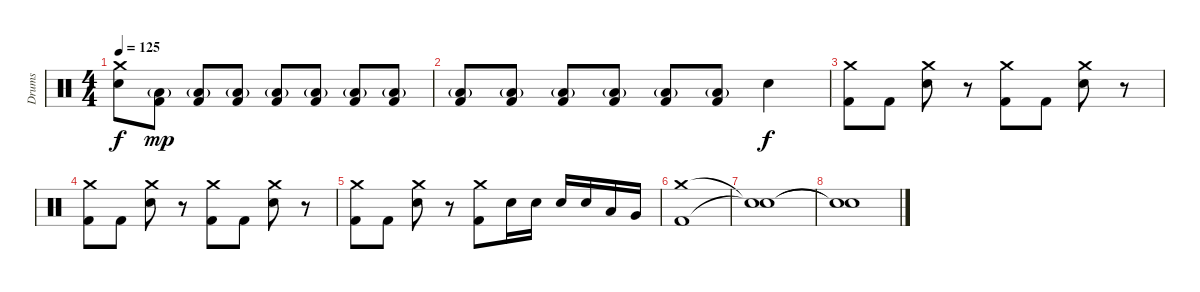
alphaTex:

\track ("Drums" "Drums") {instrument percussion}
\staff {score}
\articulation defaults
\ts (4 4)
\tempo 125
\clef neutral
\ks c
("Crash medium (hit)" "Electric Snare (hit)").8{dy f} ("Low Floor Tom (hit)"{g} "Kick (hit) 2").8{dy mp} ("Low Floor Tom (hit)"{g} "Kick (hit) 2").8 ("Low Floor Tom (hit)"{g} "Kick (hit) 2").8 ("Low Floor Tom (hit)"{g} "Kick (hit) 2").8 ("Low Floor Tom (hit)"{g} "Kick (hit) 2").8 ("Low Floor Tom (hit)"{g} "Kick (hit) 2").8 ("Low Floor Tom (hit)"{g} "Kick (hit) 2").8 |
("Low Floor Tom (hit)"{g} "Kick (hit) 2").8 ("Low Floor Tom (hit)"{g} "Kick (hit) 2").8 ("Low Floor Tom (hit)"{g} "Kick (hit) 2").8 ("Low Floor Tom (hit)"{g} "Kick (hit) 2").8 ("Low Floor Tom (hit)"{g} "Kick (hit) 2").8 ("Low Floor Tom (hit)"{g} "Kick (hit) 2").8 "Electric Snare (hit)".4{dy f} |
("Crash medium (hit)" "Kick (hit) 2").8 "Kick (hit) 2".8 ("Crash medium (hit)" "Electric Snare (hit)").8 r.8 ("Crash medium (hit)" "Kick (hit) 2").8 "Kick (hit) 2".8 ("Crash medium (hit)" "Electric Snare (hit)").8 r.8 |
("Crash medium (hit)" "Kick (hit) 2").8 "Kick (hit) 2".8 ("Crash medium (hit)" "Electric Snare (hit)").8 r.8 ("Crash medium (hit)" "Kick (hit) 2").8 "Kick (hit) 2".8 ("Crash medium (hit)" "Electric Snare (hit)").8 r.8 |
("Crash medium (hit)" "Kick (hit) 2").8 "Kick (hit) 2".8 ("Crash medium (hit)" "Electric Snare (hit)").8 r.8 ("Crash medium (hit)" "Kick (hit) 2").8 "Electric Snare (hit)".16 "Electric Snare (hit)".16 "Electric Snare (hit)".16 "Electric Snare (hit)".16 "Low Tom (hit)".16 "Very Low Tom (hit)".16 |
("Crash medium (hit)" "Kick (hit) 2").1 |
("Snare (hit)"{t} "Snare (hit)"{t}).1 |
("Snare (hit)"{t} "Snare (hit)"{t}).1
